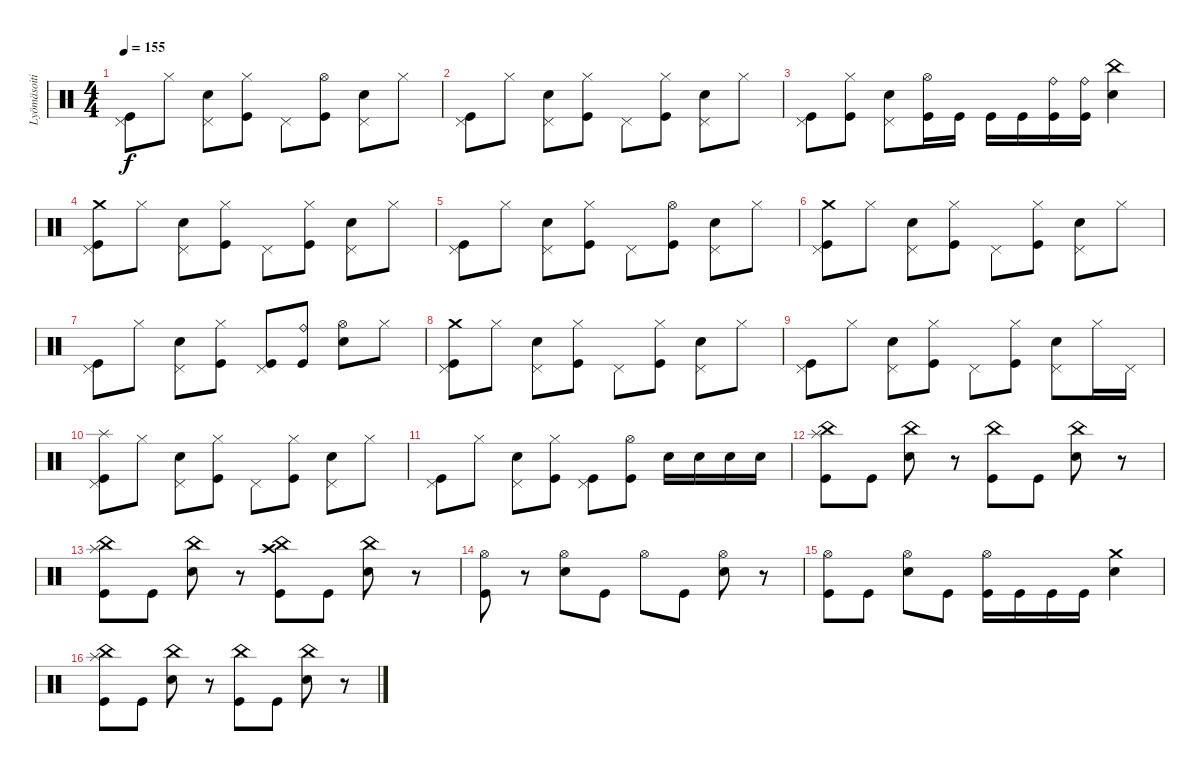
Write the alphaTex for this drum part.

\track ("Lyömäsoitin" "Lyömäsoiti") {instrument percussion}
\staff {score}
\articulation defaults
\ts (4 4)
\tempo 155
\clef neutral
\ks c
("Pedal Hi-Hat (hit)" "Kick (hit)").8{dy f} "Hi-Hat (closed)".8 ("Pedal Hi-Hat (hit)" "Snare (hit) 2").8 ("Hi-Hat (closed)" "Kick (hit)").8 "Pedal Hi-Hat (hit)".8 ("Hi-Hat (open)" "Kick (hit)").8 ("Pedal Hi-Hat (hit)" "Snare (hit) 2").8 "Hi-Hat (closed)".8 |
("Pedal Hi-Hat (hit)" "Kick (hit)").8 "Hi-Hat (closed)".8 ("Pedal Hi-Hat (hit)" "Snare (hit) 2").8 ("Hi-Hat (closed)" "Kick (hit)").8 "Pedal Hi-Hat (hit)".8 ("Hi-Hat (closed)" "Kick (hit)").8 ("Pedal Hi-Hat (hit)" "Snare (hit) 2").8 "Hi-Hat (closed)".8 |
("Pedal Hi-Hat (hit)" "Kick (hit)").8 ("Hi-Hat (closed)" "Kick (hit)").8 ("Pedal Hi-Hat (hit)" "Snare (hit) 2").8 ("Hi-Hat (open)" "Kick (hit)").16 "Kick (hit)".16 "Kick (hit)".16 "Kick (hit)".16 ("Ride (bell)" "Kick (hit)").16 ("Ride (bell)" "Kick (hit)").16 ("China (hit)" "Snare (hit) 2").4 |
("Crash medium (hit)" "Pedal Hi-Hat (hit)" "Kick (hit)").8 "Hi-Hat (closed)".8 ("Pedal Hi-Hat (hit)" "Snare (hit) 2").8 ("Hi-Hat (closed)" "Kick (hit)").8 "Pedal Hi-Hat (hit)".8 ("Hi-Hat (closed)" "Kick (hit)").8 ("Pedal Hi-Hat (hit)" "Snare (hit) 2").8 "Hi-Hat (closed)".8 |
("Pedal Hi-Hat (hit)" "Kick (hit)").8 "Hi-Hat (closed)".8 ("Pedal Hi-Hat (hit)" "Snare (hit) 2").8 ("Hi-Hat (closed)" "Kick (hit)").8 "Pedal Hi-Hat (hit)".8 ("Hi-Hat (open)" "Kick (hit)").8 ("Pedal Hi-Hat (hit)" "Snare (hit) 2").8 "Hi-Hat (closed)".8 |
("Crash medium (hit)" "Pedal Hi-Hat (hit)" "Kick (hit)").8 "Hi-Hat (closed)".8 ("Pedal Hi-Hat (hit)" "Snare (hit) 2").8 ("Hi-Hat (closed)" "Kick (hit)").8 "Pedal Hi-Hat (hit)".8 ("Hi-Hat (closed)" "Kick (hit)").8 ("Pedal Hi-Hat (hit)" "Snare (hit) 2").8 "Hi-Hat (closed)".8 |
("Pedal Hi-Hat (hit)" "Kick (hit)").8 "Hi-Hat (closed)".8 ("Pedal Hi-Hat (hit)" "Snare (hit) 2").8 ("Hi-Hat (closed)" "Kick (hit)").8 ("Pedal Hi-Hat (hit)" "Kick (hit)").8 ("Ride (bell)" "Kick (hit)").8 ("Hi-Hat (open)" "Snare (hit) 2").8 "Hi-Hat (closed)".8 |
("Crash medium (hit)" "Pedal Hi-Hat (hit)" "Kick (hit)").8 "Hi-Hat (closed)".8 ("Pedal Hi-Hat (hit)" "Snare (hit) 2").8 ("Hi-Hat (closed)" "Kick (hit)").8 "Pedal Hi-Hat (hit)".8 ("Hi-Hat (closed)" "Kick (hit)").8 ("Pedal Hi-Hat (hit)" "Snare (hit) 2").8 "Hi-Hat (closed)".8 |
("Pedal Hi-Hat (hit)" "Kick (hit)").8 "Hi-Hat (closed)".8 ("Pedal Hi-Hat (hit)" "Snare (hit) 2").8 ("Hi-Hat (closed)" "Kick (hit)").8 "Pedal Hi-Hat (hit)".8 ("Hi-Hat (closed)" "Kick (hit)").8 ("Pedal Hi-Hat (hit)" "Snare (hit) 2").8 "Hi-Hat (closed)".16 "Pedal Hi-Hat (hit)".16 |
("Splash (hit)" "Pedal Hi-Hat (hit)" "Kick (hit)").8 "Hi-Hat (closed)".8 ("Pedal Hi-Hat (hit)" "Snare (hit) 2").8 ("Hi-Hat (closed)" "Kick (hit)").8 "Pedal Hi-Hat (hit)".8 ("Hi-Hat (closed)" "Kick (hit)").8 ("Pedal Hi-Hat (hit)" "Snare (hit) 2").8 "Hi-Hat (closed)".8 |
("Pedal Hi-Hat (hit)" "Kick (hit)").8 "Hi-Hat (closed)".8 ("Pedal Hi-Hat (hit)" "Snare (hit) 2").8 ("Hi-Hat (closed)" "Kick (hit)").8 ("Pedal Hi-Hat (hit)" "Kick (hit)").8 ("Hi-Hat (open)" "Kick (hit)").8 "Snare (hit) 2".16 "Snare (hit) 2".16 "Snare (hit) 2".16 "Snare (hit) 2".16 |
("Splash (hit)" "China (hit)" "Kick (hit)").8 "Kick (hit)".8 ("China (hit)" "Snare (hit) 2").8 r.8 ("China (hit)" "Kick (hit)").8 "Kick (hit)".8 ("China (hit)" "Snare (hit) 2").8 r.8 |
("Splash (hit)" "China (hit)" "Kick (hit)").8 "Kick (hit)".8 ("China (hit)" "Snare (hit) 2").8 r.8 ("Crash high (hit)" "China (hit)" "Kick (hit)").8 "Kick (hit)".8 ("China (hit)" "Snare (hit) 2").8 r.8 |
("Hi-Hat (open)" "Kick (hit)").8 r.8 ("Hi-Hat (open)" "Snare (hit) 2").8 "Kick (hit)".8 "Hi-Hat (open)".8 "Kick (hit)".8 ("Hi-Hat (open)" "Snare (hit) 2").8 r.8 |
("Hi-Hat (open)" "Kick (hit)").8 "Kick (hit)".8 ("Hi-Hat (open)" "Snare (hit) 2").8 "Kick (hit)".8 ("Hi-Hat (open)" "Kick (hit)").16 "Kick (hit)".16 "Kick (hit)".16 "Kick (hit)".16 ("Crash medium (hit)" "Snare (hit) 2").4 |
("Splash (hit)" "China (hit)" "Kick (hit)").8 "Kick (hit)".8 ("China (hit)" "Snare (hit) 2").8 r.8 ("China (hit)" "Kick (hit)").8 "Kick (hit)".8 ("China (hit)" "Snare (hit) 2").8 r.8
